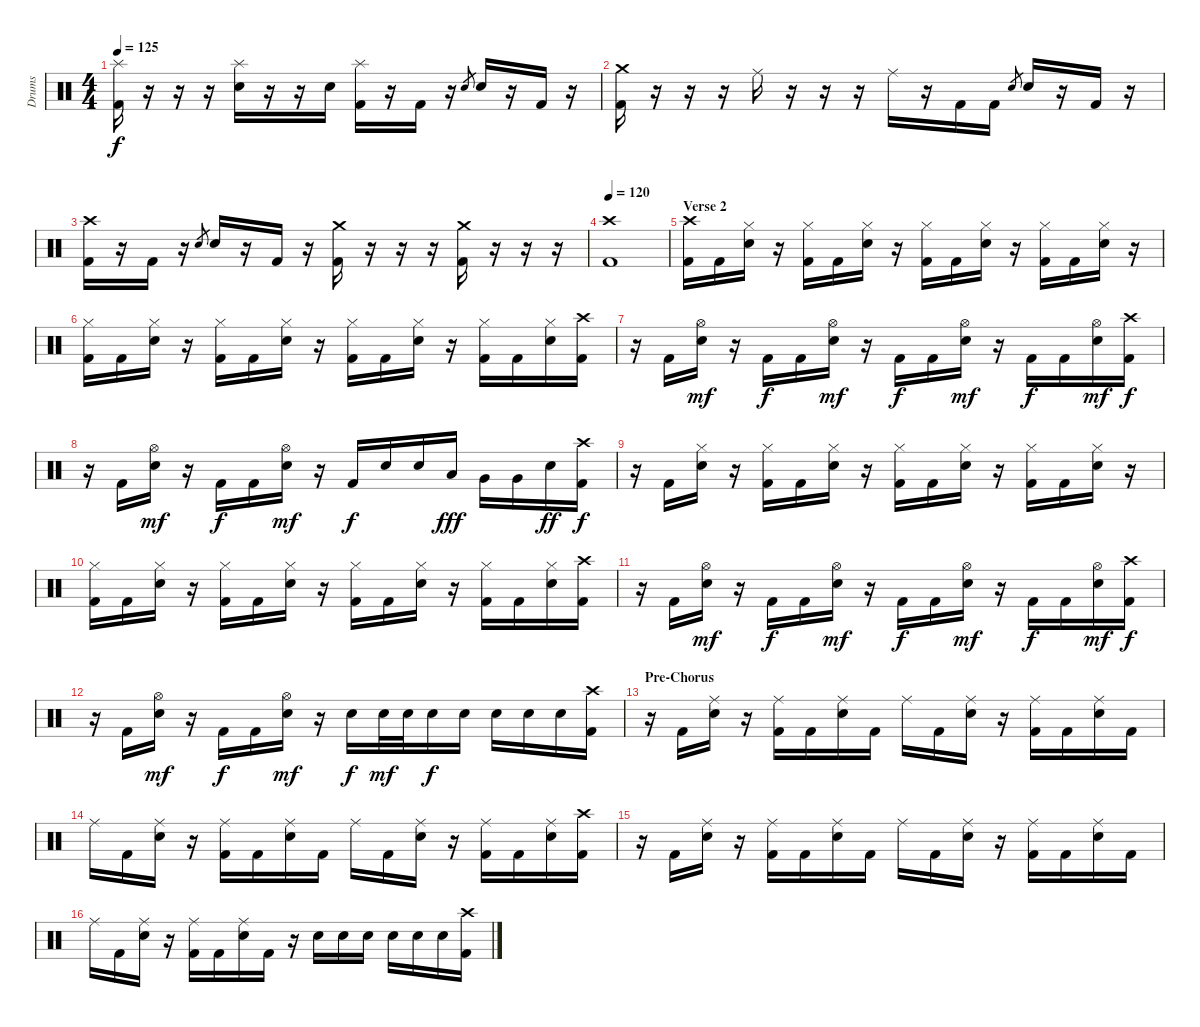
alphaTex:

\track ("Drums" "Drums") {instrument percussion}
\staff {score}
\articulation defaults
\ts (4 4)
\tempo 125
\clef neutral
\ks c
("Splash (hit)" "Kick (hit) 2").16{dy f} r.16 r.16 r.16 ("Splash (hit)" "Electric Snare (hit)").16 r.16 r.16 "Electric Snare (hit)".16 ("Splash (hit)" "Kick (hit) 2").16 r.16 "Kick (hit) 2".16 r.16 "Electric Snare (hit)".8{gr} "Electric Snare (hit)".16 r.16 "Kick (hit) 2".16 r.16 |
("Crash medium (hit)" "Kick (hit) 2").16 r.16 r.16 r.16 "Ride (middle)".16 r.16 r.16 r.16 "Ride (middle)".16 r.16 "Kick (hit) 2".16 "Kick (hit) 2".16 "Electric Snare (hit)".8{gr} "Electric Snare (hit)".16 r.16 "Kick (hit) 2".16 r.16 |
("Crash high (hit)" "Kick (hit) 2").16 r.16 "Kick (hit) 2".16 r.16 "Electric Snare (hit)".8{gr} "Electric Snare (hit)".16 r.16 "Kick (hit) 2".16 r.16 ("Crash medium (hit)" "Kick (hit) 2").16 r.16 r.16 r.16 ("Crash medium (hit)" "Kick (hit) 2").16 r.16 r.16 r.16 |
\tempo 120
("Crash high (hit)" "Kick (hit) 2").1 |
\section ("" "Verse 2")
("Crash high (hit)" "Kick (hit) 2").16 "Kick (hit) 2".16 ("Hi-Hat (closed)" "Electric Snare (hit)").16 r.16 ("Hi-Hat (closed)" "Kick (hit) 2").16 "Kick (hit) 2".16 ("Hi-Hat (closed)" "Electric Snare (hit)").16 r.16 ("Hi-Hat (closed)" "Kick (hit) 2").16 "Kick (hit) 2".16 ("Hi-Hat (closed)" "Electric Snare (hit)").16 r.16 ("Hi-Hat (closed)" "Kick (hit) 2").16 "Kick (hit) 2".16 ("Hi-Hat (closed)" "Electric Snare (hit)").16 r.16 |
("Hi-Hat (closed)" "Kick (hit) 2").16 "Kick (hit) 2".16 ("Hi-Hat (closed)" "Electric Snare (hit)").16 r.16 ("Hi-Hat (closed)" "Kick (hit) 2").16 "Kick (hit) 2".16 ("Hi-Hat (closed)" "Electric Snare (hit)").16 r.16 ("Hi-Hat (closed)" "Kick (hit) 2").16 "Kick (hit) 2".16 ("Hi-Hat (closed)" "Electric Snare (hit)").16 r.16 ("Hi-Hat (closed)" "Kick (hit) 2").16 "Kick (hit) 2".16 ("Hi-Hat (closed)" "Electric Snare (hit)").16 ("Crash high (hit)" "Kick (hit) 2").16 |
r.16 "Kick (hit) 2".16 ("Hi-Hat (open)" "Electric Snare (hit)").16{dy mf} r.16 "Kick (hit) 2".16{dy f} "Kick (hit) 2".16 ("Hi-Hat (open)" "Electric Snare (hit)").16{dy mf} r.16 "Kick (hit) 2".16{dy f} "Kick (hit) 2".16 ("Hi-Hat (open)" "Electric Snare (hit)").16{dy mf} r.16 "Kick (hit) 2".16{dy f} "Kick (hit) 2".16 ("Hi-Hat (open)" "Electric Snare (hit)").16{dy mf} ("Crash high (hit)" "Kick (hit) 2").16{dy f} |
r.16 "Kick (hit) 2".16 ("Hi-Hat (open)" "Electric Snare (hit)").16{dy mf} r.16 "Kick (hit) 2".16{dy f} "Kick (hit) 2".16 ("Hi-Hat (open)" "Electric Snare (hit)").16{dy mf} r.16 "Kick (hit) 2".16{dy f} "Electric Snare (hit)".16 "Electric Snare (hit)".16 "Low Tom (hit)".16{dy fff} "Very Low Tom (hit)".16 "Very Low Tom (hit)".16 "Electric Snare (hit)".16{dy ff} ("Crash high (hit)" "Kick (hit) 2").16{dy f} |
r.16 "Kick (hit) 2".16 ("Hi-Hat (closed)" "Electric Snare (hit)").16 r.16 ("Hi-Hat (closed)" "Kick (hit) 2").16 "Kick (hit) 2".16 ("Hi-Hat (closed)" "Electric Snare (hit)").16 r.16 ("Hi-Hat (closed)" "Kick (hit) 2").16 "Kick (hit) 2".16 ("Hi-Hat (closed)" "Electric Snare (hit)").16 r.16 ("Hi-Hat (closed)" "Kick (hit) 2").16 "Kick (hit) 2".16 ("Hi-Hat (closed)" "Electric Snare (hit)").16 r.16 |
("Hi-Hat (closed)" "Kick (hit) 2").16 "Kick (hit) 2".16 ("Hi-Hat (closed)" "Electric Snare (hit)").16 r.16 ("Hi-Hat (closed)" "Kick (hit) 2").16 "Kick (hit) 2".16 ("Hi-Hat (closed)" "Electric Snare (hit)").16 r.16 ("Hi-Hat (closed)" "Kick (hit) 2").16 "Kick (hit) 2".16 ("Hi-Hat (closed)" "Electric Snare (hit)").16 r.16 ("Hi-Hat (closed)" "Kick (hit) 2").16 "Kick (hit) 2".16 ("Hi-Hat (closed)" "Electric Snare (hit)").16 ("Crash high (hit)" "Kick (hit) 2").16 |
r.16 "Kick (hit) 2".16 ("Hi-Hat (open)" "Electric Snare (hit)").16{dy mf} r.16 "Kick (hit) 2".16{dy f} "Kick (hit) 2".16 ("Hi-Hat (open)" "Electric Snare (hit)").16{dy mf} r.16 "Kick (hit) 2".16{dy f} "Kick (hit) 2".16 ("Hi-Hat (open)" "Electric Snare (hit)").16{dy mf} r.16 "Kick (hit) 2".16{dy f} "Kick (hit) 2".16 ("Hi-Hat (open)" "Electric Snare (hit)").16{dy mf} ("Crash high (hit)" "Kick (hit) 2").16{dy f} |
r.16 "Kick (hit) 2".16 ("Hi-Hat (open)" "Electric Snare (hit)").16{dy mf} r.16 "Kick (hit) 2".16{dy f} "Kick (hit) 2".16 ("Hi-Hat (open)" "Electric Snare (hit)").16{dy mf} r.16 "Electric Snare (hit)".16{dy f} "Electric Snare (hit)".32{dy mf} "Electric Snare (hit)".32 "Electric Snare (hit)".16{dy f} "Electric Snare (hit)".16 "Electric Snare (hit)".16 "Electric Snare (hit)".16 "Electric Snare (hit)".16 ("Crash high (hit)" "Kick (hit) 2").16 |
\section ("" "Pre-Chorus")
r.16 "Kick (hit) 2".16 ("Ride (middle)" "Electric Snare (hit)").16 r.16 ("Ride (middle)" "Kick (hit) 2").16 "Kick (hit) 2".16 ("Ride (middle)" "Electric Snare (hit)").16 "Kick (hit) 2".16 "Ride (middle)".16 "Kick (hit) 2".16 ("Ride (middle)" "Electric Snare (hit)").16 r.16 ("Ride (middle)" "Kick (hit) 2").16 "Kick (hit) 2".16 ("Ride (middle)" "Electric Snare (hit)").16 "Kick (hit) 2".16 |
"Ride (middle)".16 "Kick (hit) 2".16 ("Ride (middle)" "Electric Snare (hit)").16 r.16 ("Ride (middle)" "Kick (hit) 2").16 "Kick (hit) 2".16 ("Ride (middle)" "Electric Snare (hit)").16 "Kick (hit) 2".16 "Ride (middle)".16 "Kick (hit) 2".16 ("Ride (middle)" "Electric Snare (hit)").16 r.16 ("Ride (middle)" "Kick (hit) 2").16 "Kick (hit) 2".16 ("Ride (middle)" "Electric Snare (hit)").16 ("Crash high (hit)" "Kick (hit) 2").16 |
r.16 "Kick (hit) 2".16 ("Ride (middle)" "Electric Snare (hit)").16 r.16 ("Ride (middle)" "Kick (hit) 2").16 "Kick (hit) 2".16 ("Ride (middle)" "Electric Snare (hit)").16 "Kick (hit) 2".16 "Ride (middle)".16 "Kick (hit) 2".16 ("Ride (middle)" "Electric Snare (hit)").16 r.16 ("Ride (middle)" "Kick (hit) 2").16 "Kick (hit) 2".16 ("Ride (middle)" "Electric Snare (hit)").16 "Kick (hit) 2".16 |
"Ride (middle)".16 "Kick (hit) 2".16 ("Ride (middle)" "Electric Snare (hit)").16 r.16 ("Ride (middle)" "Kick (hit) 2").16 "Kick (hit) 2".16 ("Ride (middle)" "Electric Snare (hit)").16 "Kick (hit) 2".16 r.16 "Electric Snare (hit)".16 "Electric Snare (hit)".16 "Electric Snare (hit)".16 "Electric Snare (hit)".16 "Electric Snare (hit)".16 "Electric Snare (hit)".16 ("Crash high (hit)" "Kick (hit) 2").16
